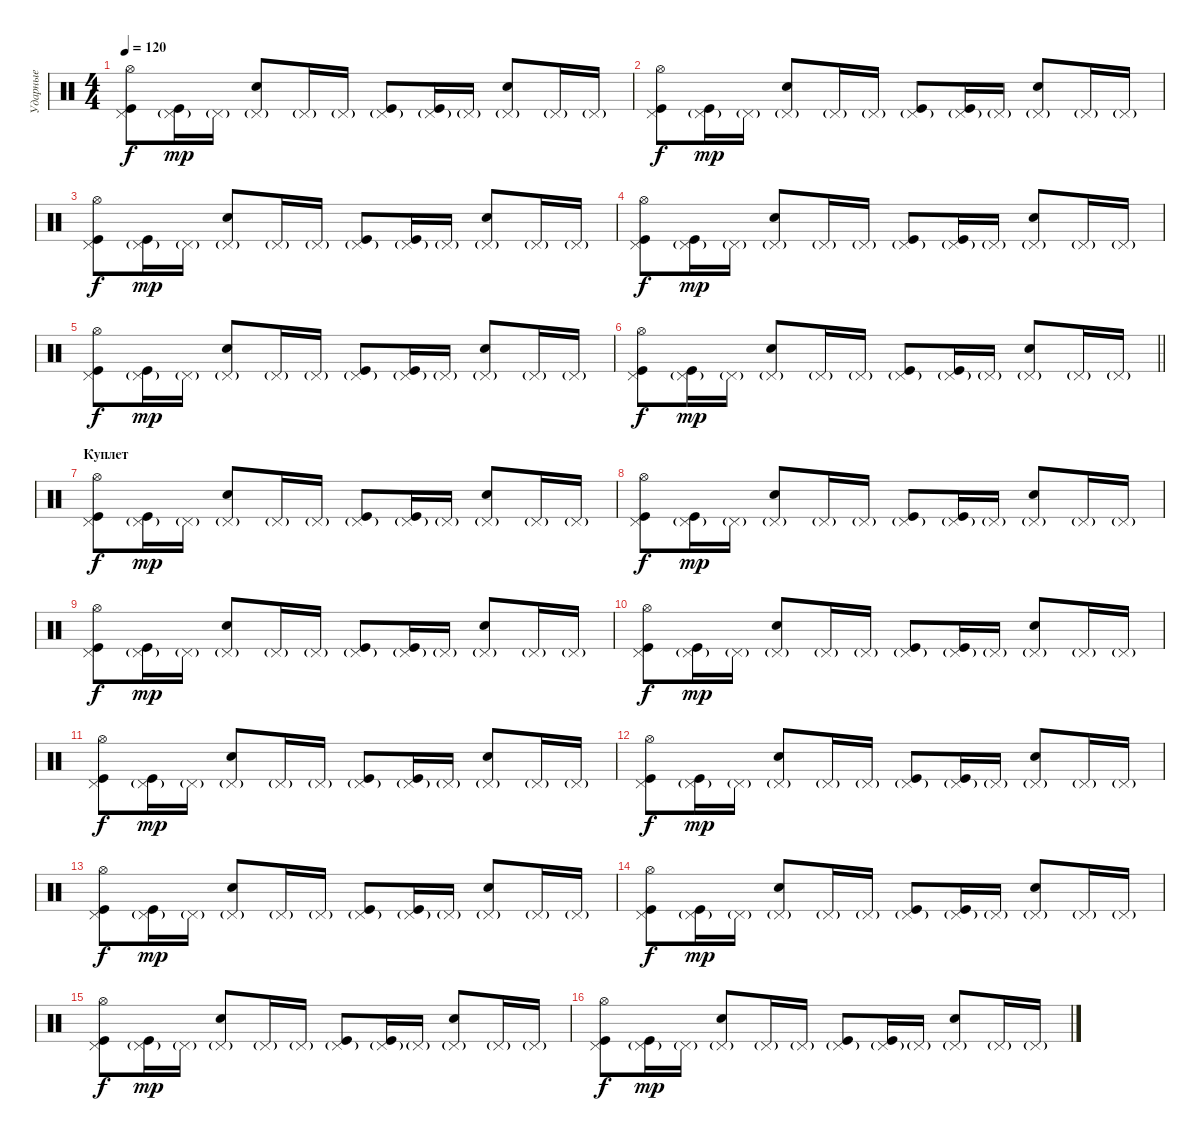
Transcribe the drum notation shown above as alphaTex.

\track ("Ударные" "Ударные") {instrument percussion}
\staff {score}
\articulation defaults
\ts (4 4)
\tempo 120
\clef neutral
\ks c
("Hi-Hat (open)" "Kick (hit)" "Pedal Hi-Hat (hit)").8{dy f} ("Kick (hit)" "Pedal Hi-Hat (hit)"{g}).16{dy mp} "Pedal Hi-Hat (hit)"{g}.16 ("Electric Snare (hit)" "Pedal Hi-Hat (hit)"{g}).8 "Pedal Hi-Hat (hit)"{g}.16 "Pedal Hi-Hat (hit)"{g}.16 ("Kick (hit)" "Pedal Hi-Hat (hit)"{g}).8 ("Kick (hit)" "Pedal Hi-Hat (hit)"{g}).16 "Pedal Hi-Hat (hit)"{g}.16 ("Electric Snare (hit)" "Pedal Hi-Hat (hit)"{g}).8 "Pedal Hi-Hat (hit)"{g}.16 "Pedal Hi-Hat (hit)"{g}.16 |
("Hi-Hat (open)" "Kick (hit)" "Pedal Hi-Hat (hit)").8{dy f} ("Kick (hit)" "Pedal Hi-Hat (hit)"{g}).16{dy mp} "Pedal Hi-Hat (hit)"{g}.16 ("Electric Snare (hit)" "Pedal Hi-Hat (hit)"{g}).8 "Pedal Hi-Hat (hit)"{g}.16 "Pedal Hi-Hat (hit)"{g}.16 ("Kick (hit)" "Pedal Hi-Hat (hit)"{g}).8 ("Kick (hit)" "Pedal Hi-Hat (hit)"{g}).16 "Pedal Hi-Hat (hit)"{g}.16 ("Electric Snare (hit)" "Pedal Hi-Hat (hit)"{g}).8 "Pedal Hi-Hat (hit)"{g}.16 "Pedal Hi-Hat (hit)"{g}.16 |
("Hi-Hat (open)" "Kick (hit)" "Pedal Hi-Hat (hit)").8{dy f} ("Kick (hit)" "Pedal Hi-Hat (hit)"{g}).16{dy mp} "Pedal Hi-Hat (hit)"{g}.16 ("Electric Snare (hit)" "Pedal Hi-Hat (hit)"{g}).8 "Pedal Hi-Hat (hit)"{g}.16 "Pedal Hi-Hat (hit)"{g}.16 ("Kick (hit)" "Pedal Hi-Hat (hit)"{g}).8 ("Kick (hit)" "Pedal Hi-Hat (hit)"{g}).16 "Pedal Hi-Hat (hit)"{g}.16 ("Electric Snare (hit)" "Pedal Hi-Hat (hit)"{g}).8 "Pedal Hi-Hat (hit)"{g}.16 "Pedal Hi-Hat (hit)"{g}.16 |
("Hi-Hat (open)" "Kick (hit)" "Pedal Hi-Hat (hit)").8{dy f} ("Kick (hit)" "Pedal Hi-Hat (hit)"{g}).16{dy mp} "Pedal Hi-Hat (hit)"{g}.16 ("Electric Snare (hit)" "Pedal Hi-Hat (hit)"{g}).8 "Pedal Hi-Hat (hit)"{g}.16 "Pedal Hi-Hat (hit)"{g}.16 ("Kick (hit)" "Pedal Hi-Hat (hit)"{g}).8 ("Kick (hit)" "Pedal Hi-Hat (hit)"{g}).16 "Pedal Hi-Hat (hit)"{g}.16 ("Electric Snare (hit)" "Pedal Hi-Hat (hit)"{g}).8 "Pedal Hi-Hat (hit)"{g}.16 "Pedal Hi-Hat (hit)"{g}.16 |
("Hi-Hat (open)" "Kick (hit)" "Pedal Hi-Hat (hit)").8{dy f} ("Kick (hit)" "Pedal Hi-Hat (hit)"{g}).16{dy mp} "Pedal Hi-Hat (hit)"{g}.16 ("Electric Snare (hit)" "Pedal Hi-Hat (hit)"{g}).8 "Pedal Hi-Hat (hit)"{g}.16 "Pedal Hi-Hat (hit)"{g}.16 ("Kick (hit)" "Pedal Hi-Hat (hit)"{g}).8 ("Kick (hit)" "Pedal Hi-Hat (hit)"{g}).16 "Pedal Hi-Hat (hit)"{g}.16 ("Electric Snare (hit)" "Pedal Hi-Hat (hit)"{g}).8 "Pedal Hi-Hat (hit)"{g}.16 "Pedal Hi-Hat (hit)"{g}.16 |
\barLineRight lightlight
("Hi-Hat (open)" "Kick (hit)" "Pedal Hi-Hat (hit)").8{dy f} ("Kick (hit)" "Pedal Hi-Hat (hit)"{g}).16{dy mp} "Pedal Hi-Hat (hit)"{g}.16 ("Electric Snare (hit)" "Pedal Hi-Hat (hit)"{g}).8 "Pedal Hi-Hat (hit)"{g}.16 "Pedal Hi-Hat (hit)"{g}.16 ("Kick (hit)" "Pedal Hi-Hat (hit)"{g}).8 ("Kick (hit)" "Pedal Hi-Hat (hit)"{g}).16 "Pedal Hi-Hat (hit)"{g}.16 ("Electric Snare (hit)" "Pedal Hi-Hat (hit)"{g}).8 "Pedal Hi-Hat (hit)"{g}.16 "Pedal Hi-Hat (hit)"{g}.16 |
\section ("" "Куплет")
("Hi-Hat (open)" "Kick (hit)" "Pedal Hi-Hat (hit)").8{dy f} ("Kick (hit)" "Pedal Hi-Hat (hit)"{g}).16{dy mp} "Pedal Hi-Hat (hit)"{g}.16 ("Electric Snare (hit)" "Pedal Hi-Hat (hit)"{g}).8 "Pedal Hi-Hat (hit)"{g}.16 "Pedal Hi-Hat (hit)"{g}.16 ("Kick (hit)" "Pedal Hi-Hat (hit)"{g}).8 ("Kick (hit)" "Pedal Hi-Hat (hit)"{g}).16 "Pedal Hi-Hat (hit)"{g}.16 ("Electric Snare (hit)" "Pedal Hi-Hat (hit)"{g}).8 "Pedal Hi-Hat (hit)"{g}.16 "Pedal Hi-Hat (hit)"{g}.16 |
("Hi-Hat (open)" "Kick (hit)" "Pedal Hi-Hat (hit)").8{dy f} ("Kick (hit)" "Pedal Hi-Hat (hit)"{g}).16{dy mp} "Pedal Hi-Hat (hit)"{g}.16 ("Electric Snare (hit)" "Pedal Hi-Hat (hit)"{g}).8 "Pedal Hi-Hat (hit)"{g}.16 "Pedal Hi-Hat (hit)"{g}.16 ("Kick (hit)" "Pedal Hi-Hat (hit)"{g}).8 ("Kick (hit)" "Pedal Hi-Hat (hit)"{g}).16 "Pedal Hi-Hat (hit)"{g}.16 ("Electric Snare (hit)" "Pedal Hi-Hat (hit)"{g}).8 "Pedal Hi-Hat (hit)"{g}.16 "Pedal Hi-Hat (hit)"{g}.16 |
("Hi-Hat (open)" "Kick (hit)" "Pedal Hi-Hat (hit)").8{dy f} ("Kick (hit)" "Pedal Hi-Hat (hit)"{g}).16{dy mp} "Pedal Hi-Hat (hit)"{g}.16 ("Electric Snare (hit)" "Pedal Hi-Hat (hit)"{g}).8 "Pedal Hi-Hat (hit)"{g}.16 "Pedal Hi-Hat (hit)"{g}.16 ("Kick (hit)" "Pedal Hi-Hat (hit)"{g}).8 ("Kick (hit)" "Pedal Hi-Hat (hit)"{g}).16 "Pedal Hi-Hat (hit)"{g}.16 ("Electric Snare (hit)" "Pedal Hi-Hat (hit)"{g}).8 "Pedal Hi-Hat (hit)"{g}.16 "Pedal Hi-Hat (hit)"{g}.16 |
("Hi-Hat (open)" "Kick (hit)" "Pedal Hi-Hat (hit)").8{dy f} ("Kick (hit)" "Pedal Hi-Hat (hit)"{g}).16{dy mp} "Pedal Hi-Hat (hit)"{g}.16 ("Electric Snare (hit)" "Pedal Hi-Hat (hit)"{g}).8 "Pedal Hi-Hat (hit)"{g}.16 "Pedal Hi-Hat (hit)"{g}.16 ("Kick (hit)" "Pedal Hi-Hat (hit)"{g}).8 ("Kick (hit)" "Pedal Hi-Hat (hit)"{g}).16 "Pedal Hi-Hat (hit)"{g}.16 ("Electric Snare (hit)" "Pedal Hi-Hat (hit)"{g}).8 "Pedal Hi-Hat (hit)"{g}.16 "Pedal Hi-Hat (hit)"{g}.16 |
("Hi-Hat (open)" "Kick (hit)" "Pedal Hi-Hat (hit)").8{dy f} ("Kick (hit)" "Pedal Hi-Hat (hit)"{g}).16{dy mp} "Pedal Hi-Hat (hit)"{g}.16 ("Electric Snare (hit)" "Pedal Hi-Hat (hit)"{g}).8 "Pedal Hi-Hat (hit)"{g}.16 "Pedal Hi-Hat (hit)"{g}.16 ("Kick (hit)" "Pedal Hi-Hat (hit)"{g}).8 ("Kick (hit)" "Pedal Hi-Hat (hit)"{g}).16 "Pedal Hi-Hat (hit)"{g}.16 ("Electric Snare (hit)" "Pedal Hi-Hat (hit)"{g}).8 "Pedal Hi-Hat (hit)"{g}.16 "Pedal Hi-Hat (hit)"{g}.16 |
("Hi-Hat (open)" "Kick (hit)" "Pedal Hi-Hat (hit)").8{dy f} ("Kick (hit)" "Pedal Hi-Hat (hit)"{g}).16{dy mp} "Pedal Hi-Hat (hit)"{g}.16 ("Electric Snare (hit)" "Pedal Hi-Hat (hit)"{g}).8 "Pedal Hi-Hat (hit)"{g}.16 "Pedal Hi-Hat (hit)"{g}.16 ("Kick (hit)" "Pedal Hi-Hat (hit)"{g}).8 ("Kick (hit)" "Pedal Hi-Hat (hit)"{g}).16 "Pedal Hi-Hat (hit)"{g}.16 ("Electric Snare (hit)" "Pedal Hi-Hat (hit)"{g}).8 "Pedal Hi-Hat (hit)"{g}.16 "Pedal Hi-Hat (hit)"{g}.16 |
("Hi-Hat (open)" "Kick (hit)" "Pedal Hi-Hat (hit)").8{dy f} ("Kick (hit)" "Pedal Hi-Hat (hit)"{g}).16{dy mp} "Pedal Hi-Hat (hit)"{g}.16 ("Electric Snare (hit)" "Pedal Hi-Hat (hit)"{g}).8 "Pedal Hi-Hat (hit)"{g}.16 "Pedal Hi-Hat (hit)"{g}.16 ("Kick (hit)" "Pedal Hi-Hat (hit)"{g}).8 ("Kick (hit)" "Pedal Hi-Hat (hit)"{g}).16 "Pedal Hi-Hat (hit)"{g}.16 ("Electric Snare (hit)" "Pedal Hi-Hat (hit)"{g}).8 "Pedal Hi-Hat (hit)"{g}.16 "Pedal Hi-Hat (hit)"{g}.16 |
("Hi-Hat (open)" "Kick (hit)" "Pedal Hi-Hat (hit)").8{dy f} ("Kick (hit)" "Pedal Hi-Hat (hit)"{g}).16{dy mp} "Pedal Hi-Hat (hit)"{g}.16 ("Electric Snare (hit)" "Pedal Hi-Hat (hit)"{g}).8 "Pedal Hi-Hat (hit)"{g}.16 "Pedal Hi-Hat (hit)"{g}.16 ("Kick (hit)" "Pedal Hi-Hat (hit)"{g}).8 ("Kick (hit)" "Pedal Hi-Hat (hit)"{g}).16 "Pedal Hi-Hat (hit)"{g}.16 ("Electric Snare (hit)" "Pedal Hi-Hat (hit)"{g}).8 "Pedal Hi-Hat (hit)"{g}.16 "Pedal Hi-Hat (hit)"{g}.16 |
("Hi-Hat (open)" "Kick (hit)" "Pedal Hi-Hat (hit)").8{dy f} ("Kick (hit)" "Pedal Hi-Hat (hit)"{g}).16{dy mp} "Pedal Hi-Hat (hit)"{g}.16 ("Electric Snare (hit)" "Pedal Hi-Hat (hit)"{g}).8 "Pedal Hi-Hat (hit)"{g}.16 "Pedal Hi-Hat (hit)"{g}.16 ("Kick (hit)" "Pedal Hi-Hat (hit)"{g}).8 ("Kick (hit)" "Pedal Hi-Hat (hit)"{g}).16 "Pedal Hi-Hat (hit)"{g}.16 ("Electric Snare (hit)" "Pedal Hi-Hat (hit)"{g}).8 "Pedal Hi-Hat (hit)"{g}.16 "Pedal Hi-Hat (hit)"{g}.16 |
("Hi-Hat (open)" "Kick (hit)" "Pedal Hi-Hat (hit)").8{dy f} ("Kick (hit)" "Pedal Hi-Hat (hit)"{g}).16{dy mp} "Pedal Hi-Hat (hit)"{g}.16 ("Electric Snare (hit)" "Pedal Hi-Hat (hit)"{g}).8 "Pedal Hi-Hat (hit)"{g}.16 "Pedal Hi-Hat (hit)"{g}.16 ("Kick (hit)" "Pedal Hi-Hat (hit)"{g}).8 ("Kick (hit)" "Pedal Hi-Hat (hit)"{g}).16 "Pedal Hi-Hat (hit)"{g}.16 ("Electric Snare (hit)" "Pedal Hi-Hat (hit)"{g}).8 "Pedal Hi-Hat (hit)"{g}.16 "Pedal Hi-Hat (hit)"{g}.16
